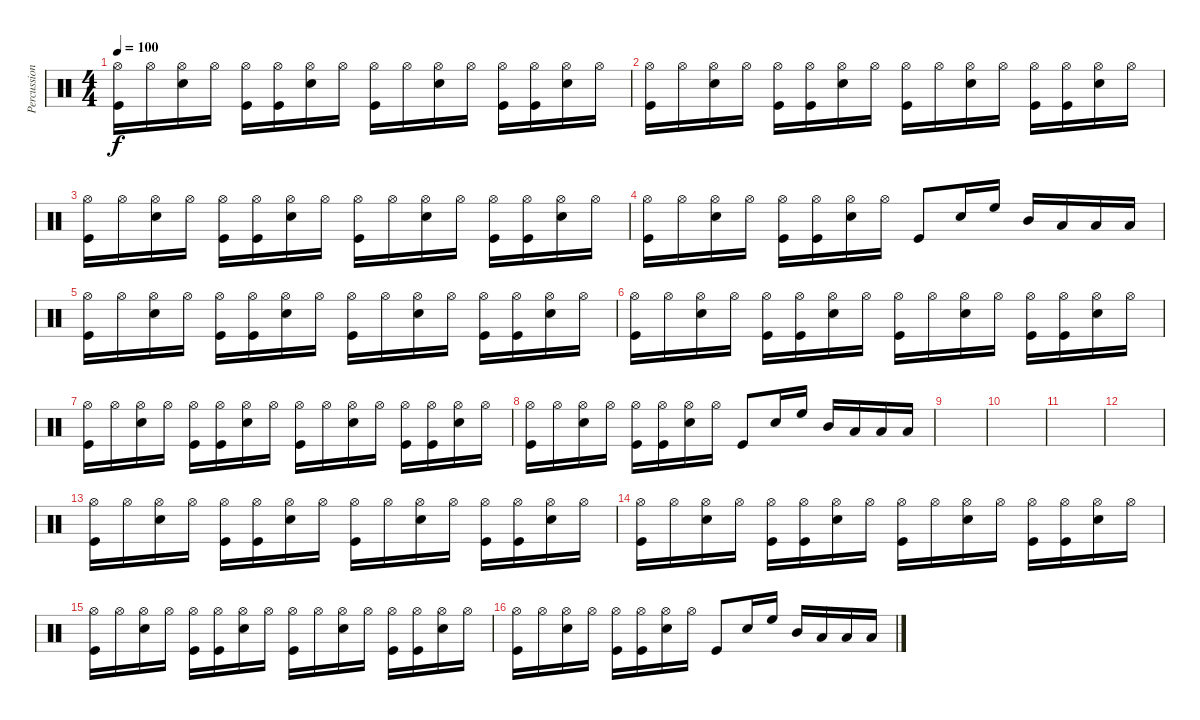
\track ("Percussions" "Percussion") {instrument percussion}
\staff {score}
\articulation defaults
\ts (4 4)
\tempo 100
\clef neutral
\ks c
("Hi-Hat (open)" "Kick (hit)").16{dy f} "Hi-Hat (open)".16 ("Hi-Hat (open)" "Snare (hit) 2").16 "Hi-Hat (open)".16 ("Hi-Hat (open)" "Kick (hit)").16 ("Hi-Hat (open)" "Kick (hit)").16 ("Hi-Hat (open)" "Snare (hit) 2").16 "Hi-Hat (open)".16 ("Hi-Hat (open)" "Kick (hit)").16 "Hi-Hat (open)".16 ("Hi-Hat (open)" "Snare (hit) 2").16 "Hi-Hat (open)".16 ("Hi-Hat (open)" "Kick (hit)").16 ("Hi-Hat (open)" "Kick (hit)").16 ("Hi-Hat (open)" "Snare (hit) 2").16 "Hi-Hat (open)".16 |
("Hi-Hat (open)" "Kick (hit)").16 "Hi-Hat (open)".16 ("Hi-Hat (open)" "Snare (hit) 2").16 "Hi-Hat (open)".16 ("Hi-Hat (open)" "Kick (hit)").16 ("Hi-Hat (open)" "Kick (hit)").16 ("Hi-Hat (open)" "Snare (hit) 2").16 "Hi-Hat (open)".16 ("Hi-Hat (open)" "Kick (hit)").16 "Hi-Hat (open)".16 ("Hi-Hat (open)" "Snare (hit) 2").16 "Hi-Hat (open)".16 ("Hi-Hat (open)" "Kick (hit)").16 ("Hi-Hat (open)" "Kick (hit)").16 ("Hi-Hat (open)" "Snare (hit) 2").16 "Hi-Hat (open)".16 |
("Hi-Hat (open)" "Kick (hit)").16 "Hi-Hat (open)".16 ("Hi-Hat (open)" "Snare (hit) 2").16 "Hi-Hat (open)".16 ("Hi-Hat (open)" "Kick (hit)").16 ("Hi-Hat (open)" "Kick (hit)").16 ("Hi-Hat (open)" "Snare (hit) 2").16 "Hi-Hat (open)".16 ("Hi-Hat (open)" "Kick (hit)").16 "Hi-Hat (open)".16 ("Hi-Hat (open)" "Snare (hit) 2").16 "Hi-Hat (open)".16 ("Hi-Hat (open)" "Kick (hit)").16 ("Hi-Hat (open)" "Kick (hit)").16 ("Hi-Hat (open)" "Snare (hit) 2").16 "Hi-Hat (open)".16 |
("Hi-Hat (open)" "Kick (hit)").16 "Hi-Hat (open)".16 ("Hi-Hat (open)" "Snare (hit) 2").16 "Hi-Hat (open)".16 ("Hi-Hat (open)" "Kick (hit)").16 ("Hi-Hat (open)" "Kick (hit)").16 ("Hi-Hat (open)" "Snare (hit) 2").16 "Hi-Hat (open)".16 "Kick (hit)".8 "Snare (hit) 2".16 "High Floor Tom (hit)".16 "Mid Tom (hit)".16 "Low Tom (hit)".16 "Low Floor Tom (hit)".16 "Low Tom (hit)".16 |
("Hi-Hat (open)" "Kick (hit)").16 "Hi-Hat (open)".16 ("Hi-Hat (open)" "Snare (hit) 2").16 "Hi-Hat (open)".16 ("Hi-Hat (open)" "Kick (hit)").16 ("Hi-Hat (open)" "Kick (hit)").16 ("Hi-Hat (open)" "Snare (hit) 2").16 "Hi-Hat (open)".16 ("Hi-Hat (open)" "Kick (hit)").16 "Hi-Hat (open)".16 ("Hi-Hat (open)" "Snare (hit) 2").16 "Hi-Hat (open)".16 ("Hi-Hat (open)" "Kick (hit)").16 ("Hi-Hat (open)" "Kick (hit)").16 ("Hi-Hat (open)" "Snare (hit) 2").16 "Hi-Hat (open)".16 |
("Hi-Hat (open)" "Kick (hit)").16 "Hi-Hat (open)".16 ("Hi-Hat (open)" "Snare (hit) 2").16 "Hi-Hat (open)".16 ("Hi-Hat (open)" "Kick (hit)").16 ("Hi-Hat (open)" "Kick (hit)").16 ("Hi-Hat (open)" "Snare (hit) 2").16 "Hi-Hat (open)".16 ("Hi-Hat (open)" "Kick (hit)").16 "Hi-Hat (open)".16 ("Hi-Hat (open)" "Snare (hit) 2").16 "Hi-Hat (open)".16 ("Hi-Hat (open)" "Kick (hit)").16 ("Hi-Hat (open)" "Kick (hit)").16 ("Hi-Hat (open)" "Snare (hit) 2").16 "Hi-Hat (open)".16 |
("Hi-Hat (open)" "Kick (hit)").16 "Hi-Hat (open)".16 ("Hi-Hat (open)" "Snare (hit) 2").16 "Hi-Hat (open)".16 ("Hi-Hat (open)" "Kick (hit)").16 ("Hi-Hat (open)" "Kick (hit)").16 ("Hi-Hat (open)" "Snare (hit) 2").16 "Hi-Hat (open)".16 ("Hi-Hat (open)" "Kick (hit)").16 "Hi-Hat (open)".16 ("Hi-Hat (open)" "Snare (hit) 2").16 "Hi-Hat (open)".16 ("Hi-Hat (open)" "Kick (hit)").16 ("Hi-Hat (open)" "Kick (hit)").16 ("Hi-Hat (open)" "Snare (hit) 2").16 "Hi-Hat (open)".16 |
("Hi-Hat (open)" "Kick (hit)").16 "Hi-Hat (open)".16 ("Hi-Hat (open)" "Snare (hit) 2").16 "Hi-Hat (open)".16 ("Hi-Hat (open)" "Kick (hit)").16 ("Hi-Hat (open)" "Kick (hit)").16 ("Hi-Hat (open)" "Snare (hit) 2").16 "Hi-Hat (open)".16 "Kick (hit)".8 "Snare (hit) 2".16 "High Floor Tom (hit)".16 "Mid Tom (hit)".16 "Low Tom (hit)".16 "Low Floor Tom (hit)".16 "Low Tom (hit)".16 |
|
|
|
|
("Hi-Hat (open)" "Kick (hit)").16 "Hi-Hat (open)".16 ("Hi-Hat (open)" "Snare (hit) 2").16 "Hi-Hat (open)".16 ("Hi-Hat (open)" "Kick (hit)").16 ("Hi-Hat (open)" "Kick (hit)").16 ("Hi-Hat (open)" "Snare (hit) 2").16 "Hi-Hat (open)".16 ("Hi-Hat (open)" "Kick (hit)").16 "Hi-Hat (open)".16 ("Hi-Hat (open)" "Snare (hit) 2").16 "Hi-Hat (open)".16 ("Hi-Hat (open)" "Kick (hit)").16 ("Hi-Hat (open)" "Kick (hit)").16 ("Hi-Hat (open)" "Snare (hit) 2").16 "Hi-Hat (open)".16 |
("Hi-Hat (open)" "Kick (hit)").16 "Hi-Hat (open)".16 ("Hi-Hat (open)" "Snare (hit) 2").16 "Hi-Hat (open)".16 ("Hi-Hat (open)" "Kick (hit)").16 ("Hi-Hat (open)" "Kick (hit)").16 ("Hi-Hat (open)" "Snare (hit) 2").16 "Hi-Hat (open)".16 ("Hi-Hat (open)" "Kick (hit)").16 "Hi-Hat (open)".16 ("Hi-Hat (open)" "Snare (hit) 2").16 "Hi-Hat (open)".16 ("Hi-Hat (open)" "Kick (hit)").16 ("Hi-Hat (open)" "Kick (hit)").16 ("Hi-Hat (open)" "Snare (hit) 2").16 "Hi-Hat (open)".16 |
("Hi-Hat (open)" "Kick (hit)").16 "Hi-Hat (open)".16 ("Hi-Hat (open)" "Snare (hit) 2").16 "Hi-Hat (open)".16 ("Hi-Hat (open)" "Kick (hit)").16 ("Hi-Hat (open)" "Kick (hit)").16 ("Hi-Hat (open)" "Snare (hit) 2").16 "Hi-Hat (open)".16 ("Hi-Hat (open)" "Kick (hit)").16 "Hi-Hat (open)".16 ("Hi-Hat (open)" "Snare (hit) 2").16 "Hi-Hat (open)".16 ("Hi-Hat (open)" "Kick (hit)").16 ("Hi-Hat (open)" "Kick (hit)").16 ("Hi-Hat (open)" "Snare (hit) 2").16 "Hi-Hat (open)".16 |
("Hi-Hat (open)" "Kick (hit)").16 "Hi-Hat (open)".16 ("Hi-Hat (open)" "Snare (hit) 2").16 "Hi-Hat (open)".16 ("Hi-Hat (open)" "Kick (hit)").16 ("Hi-Hat (open)" "Kick (hit)").16 ("Hi-Hat (open)" "Snare (hit) 2").16 "Hi-Hat (open)".16 "Kick (hit)".8 "Snare (hit) 2".16 "High Floor Tom (hit)".16 "Mid Tom (hit)".16 "Low Tom (hit)".16 "Low Floor Tom (hit)".16 "Low Tom (hit)".16
